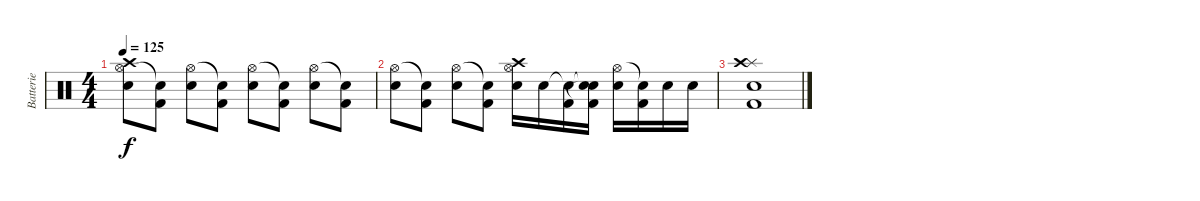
\track ("Batterie" "Batterie") {instrument percussion}
\staff {score}
\articulation defaults
\ts (4 4)
\tempo 125
\clef neutral
\ks c
("Hi-Hat (open)" "Crash high (hit)" "Electric Snare (hit)").8{dy f} ("Snare (hit)"{t} "Kick (hit) 2").8 ("Hi-Hat (open)" "Electric Snare (hit)").8 ("Snare (hit)"{t} "Kick (hit) 2").8 ("Hi-Hat (open)" "Electric Snare (hit)").8 ("Snare (hit)"{t} "Kick (hit) 2").8 ("Hi-Hat (open)" "Electric Snare (hit)").8 ("Snare (hit)"{t} "Kick (hit) 2").8 |
("Hi-Hat (open)" "Electric Snare (hit)").8 ("Snare (hit)"{t} "Kick (hit) 2").8 ("Hi-Hat (open)" "Electric Snare (hit)").8 ("Snare (hit)"{t} "Kick (hit) 2").8 ("Hi-Hat (open)" "Crash high (hit)" "Electric Snare (hit)").16 "Electric Snare (hit)".16 ("Snare (hit)"{t} "Kick (hit) 2").16 ("Snare (hit)"{t} "Snare (hit)"{t} "Kick (hit) 2").16 ("Hi-Hat (open)" "Electric Snare (hit)").16 ("Snare (hit)"{t} "Kick (hit) 2").16 "Electric Snare (hit)".16 "Electric Snare (hit)".16 |
("Splash (hit)" "Crash high (hit)" "Electric Snare (hit)" "Kick (hit) 2").1
